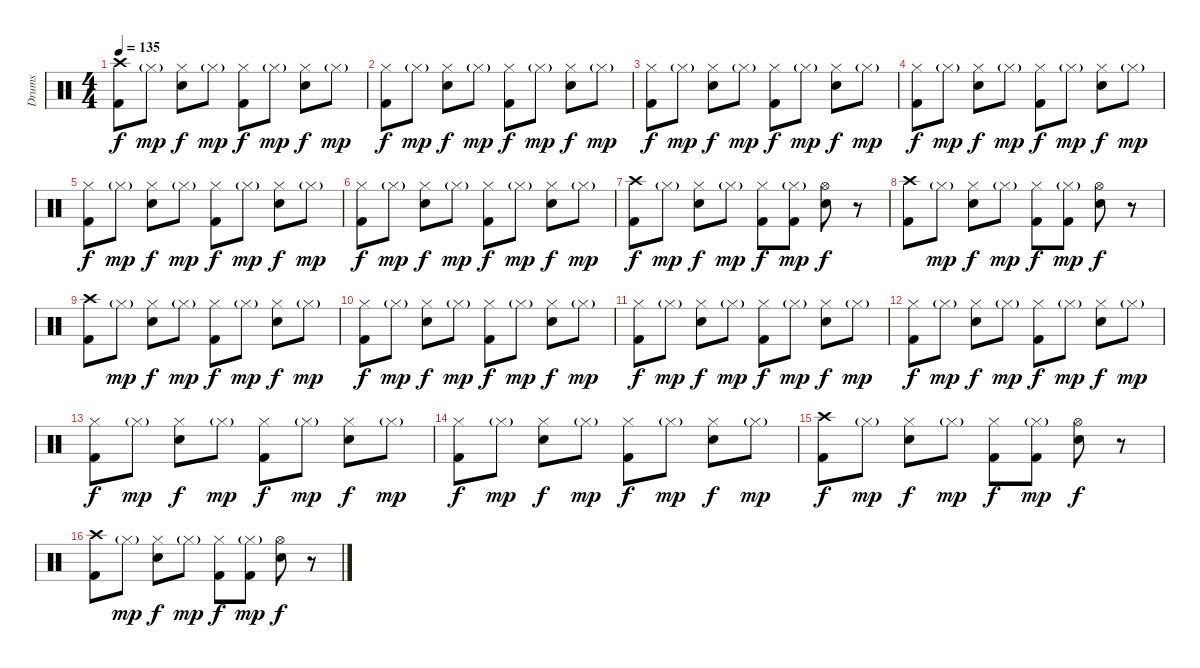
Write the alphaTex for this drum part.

\track ("Drums" "Drums") {instrument percussion}
\staff {score}
\articulation defaults
\ts (4 4)
\tempo 135
\clef neutral
\ks c
("Crash high (hit)" "Kick (hit) 2").8{dy f} "Hi-Hat (closed)"{g}.8{dy mp} ("Hi-Hat (closed)" "Electric Snare (hit)").8{dy f} "Hi-Hat (closed)"{g}.8{dy mp} ("Hi-Hat (closed)" "Kick (hit) 2").8{dy f} "Hi-Hat (closed)"{g}.8{dy mp} ("Hi-Hat (closed)" "Electric Snare (hit)").8{dy f} "Hi-Hat (closed)"{g}.8{dy mp} |
("Hi-Hat (closed)" "Kick (hit) 2").8{dy f} "Hi-Hat (closed)"{g}.8{dy mp} ("Hi-Hat (closed)" "Electric Snare (hit)").8{dy f} "Hi-Hat (closed)"{g}.8{dy mp} ("Hi-Hat (closed)" "Kick (hit) 2").8{dy f} "Hi-Hat (closed)"{g}.8{dy mp} ("Hi-Hat (closed)" "Electric Snare (hit)").8{dy f} "Hi-Hat (closed)"{g}.8{dy mp} |
("Hi-Hat (closed)" "Kick (hit) 2").8{dy f} "Hi-Hat (closed)"{g}.8{dy mp} ("Hi-Hat (closed)" "Electric Snare (hit)").8{dy f} "Hi-Hat (closed)"{g}.8{dy mp} ("Hi-Hat (closed)" "Kick (hit) 2").8{dy f} "Hi-Hat (closed)"{g}.8{dy mp} ("Hi-Hat (closed)" "Electric Snare (hit)").8{dy f} "Hi-Hat (closed)"{g}.8{dy mp} |
("Hi-Hat (closed)" "Kick (hit) 2").8{dy f} "Hi-Hat (closed)"{g}.8{dy mp} ("Hi-Hat (closed)" "Electric Snare (hit)").8{dy f} "Hi-Hat (closed)"{g}.8{dy mp} ("Hi-Hat (closed)" "Kick (hit) 2").8{dy f} "Hi-Hat (closed)"{g}.8{dy mp} ("Hi-Hat (closed)" "Electric Snare (hit)").8{dy f} "Hi-Hat (closed)"{g}.8{dy mp} |
("Hi-Hat (closed)" "Kick (hit) 2").8{dy f} "Hi-Hat (closed)"{g}.8{dy mp} ("Hi-Hat (closed)" "Electric Snare (hit)").8{dy f} "Hi-Hat (closed)"{g}.8{dy mp} ("Hi-Hat (closed)" "Kick (hit) 2").8{dy f} "Hi-Hat (closed)"{g}.8{dy mp} ("Hi-Hat (closed)" "Electric Snare (hit)").8{dy f} "Hi-Hat (closed)"{g}.8{dy mp} |
("Hi-Hat (closed)" "Kick (hit) 2").8{dy f} "Hi-Hat (closed)"{g}.8{dy mp} ("Hi-Hat (closed)" "Electric Snare (hit)").8{dy f} "Hi-Hat (closed)"{g}.8{dy mp} ("Hi-Hat (closed)" "Kick (hit) 2").8{dy f} "Hi-Hat (closed)"{g}.8{dy mp} ("Hi-Hat (closed)" "Electric Snare (hit)").8{dy f} "Hi-Hat (closed)"{g}.8{dy mp} |
("Crash high (hit)" "Kick (hit) 2").8{dy f} "Hi-Hat (closed)"{g}.8{dy mp} ("Hi-Hat (closed)" "Electric Snare (hit)").8{dy f} "Hi-Hat (closed)"{g}.8{dy mp} ("Hi-Hat (closed)" "Kick (hit) 2").8{dy f} ("Hi-Hat (closed)"{g} "Kick (hit) 2").8{dy mp} ("Hi-Hat (open)" "Electric Snare (hit)").8{dy f} r.8 |
("Crash high (hit)" "Kick (hit) 2").8 "Hi-Hat (closed)"{g}.8{dy mp} ("Hi-Hat (closed)" "Electric Snare (hit)").8{dy f} "Hi-Hat (closed)"{g}.8{dy mp} ("Hi-Hat (closed)" "Kick (hit) 2").8{dy f} ("Hi-Hat (closed)"{g} "Kick (hit) 2").8{dy mp} ("Hi-Hat (open)" "Electric Snare (hit)").8{dy f} r.8 |
("Crash high (hit)" "Kick (hit) 2").8 "Hi-Hat (closed)"{g}.8{dy mp} ("Hi-Hat (closed)" "Electric Snare (hit)").8{dy f} "Hi-Hat (closed)"{g}.8{dy mp} ("Hi-Hat (closed)" "Kick (hit) 2").8{dy f} "Hi-Hat (closed)"{g}.8{dy mp} ("Hi-Hat (closed)" "Electric Snare (hit)").8{dy f} "Hi-Hat (closed)"{g}.8{dy mp} |
("Hi-Hat (closed)" "Kick (hit) 2").8{dy f} "Hi-Hat (closed)"{g}.8{dy mp} ("Hi-Hat (closed)" "Electric Snare (hit)").8{dy f} "Hi-Hat (closed)"{g}.8{dy mp} ("Hi-Hat (closed)" "Kick (hit) 2").8{dy f} "Hi-Hat (closed)"{g}.8{dy mp} ("Hi-Hat (closed)" "Electric Snare (hit)").8{dy f} "Hi-Hat (closed)"{g}.8{dy mp} |
("Hi-Hat (closed)" "Kick (hit) 2").8{dy f} "Hi-Hat (closed)"{g}.8{dy mp} ("Hi-Hat (closed)" "Electric Snare (hit)").8{dy f} "Hi-Hat (closed)"{g}.8{dy mp} ("Hi-Hat (closed)" "Kick (hit) 2").8{dy f} "Hi-Hat (closed)"{g}.8{dy mp} ("Hi-Hat (closed)" "Electric Snare (hit)").8{dy f} "Hi-Hat (closed)"{g}.8{dy mp} |
("Hi-Hat (closed)" "Kick (hit) 2").8{dy f} "Hi-Hat (closed)"{g}.8{dy mp} ("Hi-Hat (closed)" "Electric Snare (hit)").8{dy f} "Hi-Hat (closed)"{g}.8{dy mp} ("Hi-Hat (closed)" "Kick (hit) 2").8{dy f} "Hi-Hat (closed)"{g}.8{dy mp} ("Hi-Hat (closed)" "Electric Snare (hit)").8{dy f} "Hi-Hat (closed)"{g}.8{dy mp} |
("Hi-Hat (closed)" "Kick (hit) 2").8{dy f} "Hi-Hat (closed)"{g}.8{dy mp} ("Hi-Hat (closed)" "Electric Snare (hit)").8{dy f} "Hi-Hat (closed)"{g}.8{dy mp} ("Hi-Hat (closed)" "Kick (hit) 2").8{dy f} "Hi-Hat (closed)"{g}.8{dy mp} ("Hi-Hat (closed)" "Electric Snare (hit)").8{dy f} "Hi-Hat (closed)"{g}.8{dy mp} |
("Hi-Hat (closed)" "Kick (hit) 2").8{dy f} "Hi-Hat (closed)"{g}.8{dy mp} ("Hi-Hat (closed)" "Electric Snare (hit)").8{dy f} "Hi-Hat (closed)"{g}.8{dy mp} ("Hi-Hat (closed)" "Kick (hit) 2").8{dy f} "Hi-Hat (closed)"{g}.8{dy mp} ("Hi-Hat (closed)" "Electric Snare (hit)").8{dy f} "Hi-Hat (closed)"{g}.8{dy mp} |
("Crash high (hit)" "Kick (hit) 2").8{dy f} "Hi-Hat (closed)"{g}.8{dy mp} ("Hi-Hat (closed)" "Electric Snare (hit)").8{dy f} "Hi-Hat (closed)"{g}.8{dy mp} ("Hi-Hat (closed)" "Kick (hit) 2").8{dy f} ("Hi-Hat (closed)"{g} "Kick (hit) 2").8{dy mp} ("Hi-Hat (open)" "Electric Snare (hit)").8{dy f} r.8 |
("Crash high (hit)" "Kick (hit) 2").8 "Hi-Hat (closed)"{g}.8{dy mp} ("Hi-Hat (closed)" "Electric Snare (hit)").8{dy f} "Hi-Hat (closed)"{g}.8{dy mp} ("Hi-Hat (closed)" "Kick (hit) 2").8{dy f} ("Hi-Hat (closed)"{g} "Kick (hit) 2").8{dy mp} ("Hi-Hat (open)" "Electric Snare (hit)").8{dy f} r.8
